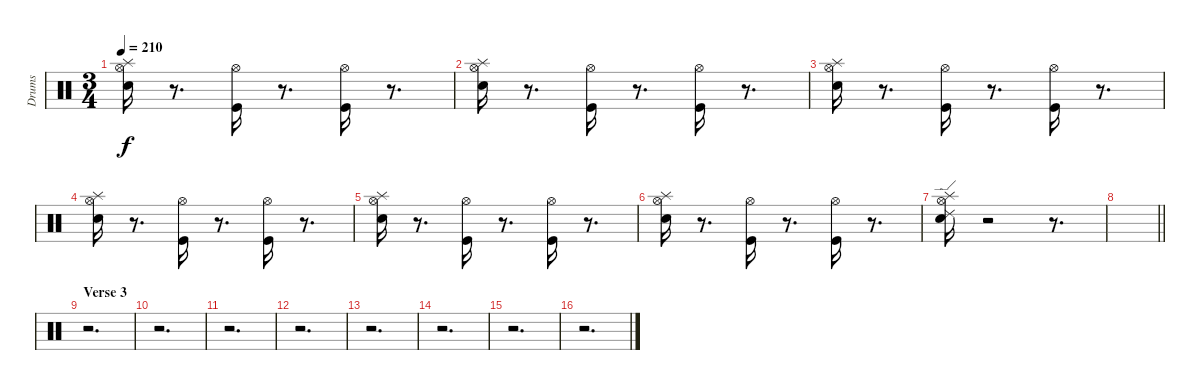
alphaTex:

\track ("Drums" "Drums") {instrument percussion}
\staff {score}
\articulation defaults
\ts (3 4)
\tempo 210
\clef neutral
\ks c
("Hi-Hat (open)" "Electric Snare (hit)" "Splash (hit)").16{dy f} r.8{d} ("Kick (hit)" "Hi-Hat (open)").16 r.8{d} ("Kick (hit)" "Hi-Hat (open)").16 r.8{d} |
("Hi-Hat (open)" "Electric Snare (hit)" "Splash (hit)").16 r.8{d} ("Kick (hit)" "Hi-Hat (open)").16 r.8{d} ("Kick (hit)" "Hi-Hat (open)").16 r.8{d} |
("Hi-Hat (open)" "Electric Snare (hit)" "Splash (hit)").16 r.8{d} ("Kick (hit)" "Hi-Hat (open)").16 r.8{d} ("Kick (hit)" "Hi-Hat (open)").16 r.8{d} |
("Hi-Hat (open)" "Electric Snare (hit)" "Splash (hit)").16 r.8{d} ("Kick (hit)" "Hi-Hat (open)").16 r.8{d} ("Kick (hit)" "Hi-Hat (open)").16 r.8{d} |
("Hi-Hat (open)" "Electric Snare (hit)" "Splash (hit)").16 r.8{d} ("Kick (hit)" "Hi-Hat (open)").16 r.8{d} ("Kick (hit)" "Hi-Hat (open)").16 r.8{d} |
("Hi-Hat (open)" "Electric Snare (hit)" "Splash (hit)").16 r.8{d} ("Kick (hit)" "Hi-Hat (open)").16 r.8{d} ("Kick (hit)" "Hi-Hat (open)").16 r.8{d} |
("Hi-Hat (open)" "Electric Snare (hit)" "Splash (hit)" "Ride (edge) 2").16 r.2 r.8{d} |
\barLineRight lightlight
|
\section ("" "Verse 3")
r.2{d} |
r.2{d} |
r.2{d} |
r.2{d} |
r.2{d} |
r.2{d} |
r.2{d} |
r.2{d}
